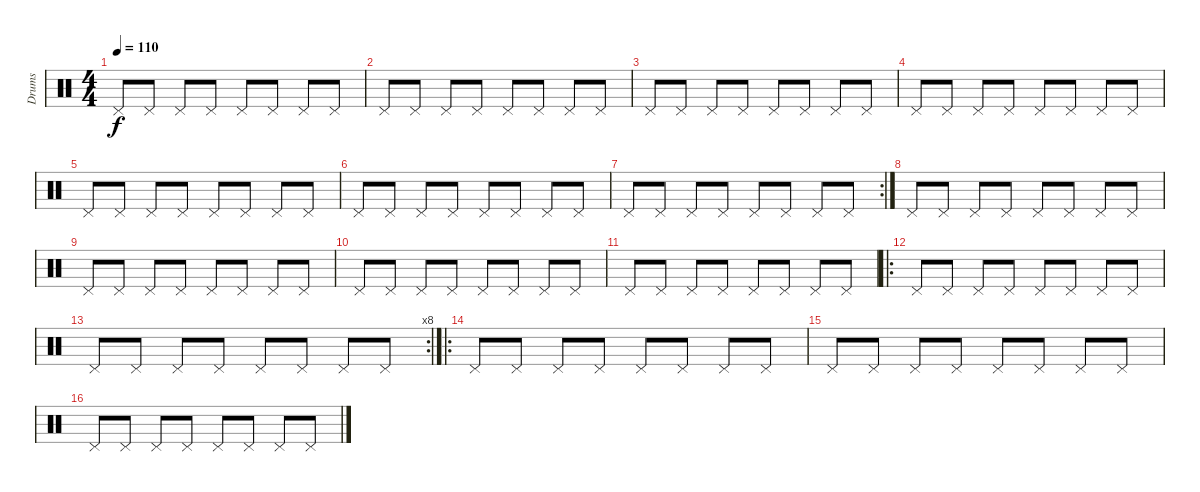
\track ("Drums" "Drums") {instrument percussion}
\staff {score}
\articulation defaults
\ts (4 4)
\tempo 110
\clef neutral
\ks c "Pedal Hi-Hat (hit)".8{dy f} "Pedal Hi-Hat (hit)".8 "Pedal Hi-Hat (hit)".8 "Pedal Hi-Hat (hit)".8 "Pedal Hi-Hat (hit)".8 "Pedal Hi-Hat (hit)".8 "Pedal Hi-Hat (hit)".8 "Pedal Hi-Hat (hit)".8
|
"Pedal Hi-Hat (hit)".8 "Pedal Hi-Hat (hit)".8 "Pedal Hi-Hat (hit)".8 "Pedal Hi-Hat (hit)".8 "Pedal Hi-Hat (hit)".8 "Pedal Hi-Hat (hit)".8 "Pedal Hi-Hat (hit)".8 "Pedal Hi-Hat (hit)".8 |
"Pedal Hi-Hat (hit)".8 "Pedal Hi-Hat (hit)".8 "Pedal Hi-Hat (hit)".8 "Pedal Hi-Hat (hit)".8 "Pedal Hi-Hat (hit)".8 "Pedal Hi-Hat (hit)".8 "Pedal Hi-Hat (hit)".8 "Pedal Hi-Hat (hit)".8 |
"Pedal Hi-Hat (hit)".8 "Pedal Hi-Hat (hit)".8 "Pedal Hi-Hat (hit)".8 "Pedal Hi-Hat (hit)".8 "Pedal Hi-Hat (hit)".8 "Pedal Hi-Hat (hit)".8 "Pedal Hi-Hat (hit)".8 "Pedal Hi-Hat (hit)".8 |
"Pedal Hi-Hat (hit)".8 "Pedal Hi-Hat (hit)".8 "Pedal Hi-Hat (hit)".8 "Pedal Hi-Hat (hit)".8 "Pedal Hi-Hat (hit)".8 "Pedal Hi-Hat (hit)".8 "Pedal Hi-Hat (hit)".8 "Pedal Hi-Hat (hit)".8 |
"Pedal Hi-Hat (hit)".8 "Pedal Hi-Hat (hit)".8 "Pedal Hi-Hat (hit)".8 "Pedal Hi-Hat (hit)".8 "Pedal Hi-Hat (hit)".8 "Pedal Hi-Hat (hit)".8 "Pedal Hi-Hat (hit)".8 "Pedal Hi-Hat (hit)".8 |
\rc 2 "Pedal Hi-Hat (hit)".8 "Pedal Hi-Hat (hit)".8 "Pedal Hi-Hat (hit)".8 "Pedal Hi-Hat (hit)".8 "Pedal Hi-Hat (hit)".8 "Pedal Hi-Hat (hit)".8 "Pedal Hi-Hat (hit)".8 "Pedal Hi-Hat (hit)".8
|
"Pedal Hi-Hat (hit)".8 "Pedal Hi-Hat (hit)".8 "Pedal Hi-Hat (hit)".8 "Pedal Hi-Hat (hit)".8 "Pedal Hi-Hat (hit)".8 "Pedal Hi-Hat (hit)".8 "Pedal Hi-Hat (hit)".8 "Pedal Hi-Hat (hit)".8 |
"Pedal Hi-Hat (hit)".8 "Pedal Hi-Hat (hit)".8 "Pedal Hi-Hat (hit)".8 "Pedal Hi-Hat (hit)".8 "Pedal Hi-Hat (hit)".8 "Pedal Hi-Hat (hit)".8 "Pedal Hi-Hat (hit)".8 "Pedal Hi-Hat (hit)".8 |
"Pedal Hi-Hat (hit)".8 "Pedal Hi-Hat (hit)".8 "Pedal Hi-Hat (hit)".8 "Pedal Hi-Hat (hit)".8 "Pedal Hi-Hat (hit)".8 "Pedal Hi-Hat (hit)".8 "Pedal Hi-Hat (hit)".8 "Pedal Hi-Hat (hit)".8 |
"Pedal Hi-Hat (hit)".8 "Pedal Hi-Hat (hit)".8 "Pedal Hi-Hat (hit)".8 "Pedal Hi-Hat (hit)".8 "Pedal Hi-Hat (hit)".8 "Pedal Hi-Hat (hit)".8 "Pedal Hi-Hat (hit)".8 "Pedal Hi-Hat (hit)".8 |
\ro "Pedal Hi-Hat (hit)".8 "Pedal Hi-Hat (hit)".8 "Pedal Hi-Hat (hit)".8 "Pedal Hi-Hat (hit)".8 "Pedal Hi-Hat (hit)".8 "Pedal Hi-Hat (hit)".8 "Pedal Hi-Hat (hit)".8 "Pedal Hi-Hat (hit)".8
|
\rc 8 "Pedal Hi-Hat (hit)".8 "Pedal Hi-Hat (hit)".8 "Pedal Hi-Hat (hit)".8 "Pedal Hi-Hat (hit)".8 "Pedal Hi-Hat (hit)".8 "Pedal Hi-Hat (hit)".8 "Pedal Hi-Hat (hit)".8 "Pedal Hi-Hat (hit)".8
|
\ro "Pedal Hi-Hat (hit)".8 "Pedal Hi-Hat (hit)".8 "Pedal Hi-Hat (hit)".8 "Pedal Hi-Hat (hit)".8 "Pedal Hi-Hat (hit)".8 "Pedal Hi-Hat (hit)".8 "Pedal Hi-Hat (hit)".8 "Pedal Hi-Hat (hit)".8
|
"Pedal Hi-Hat (hit)".8 "Pedal Hi-Hat (hit)".8 "Pedal Hi-Hat (hit)".8 "Pedal Hi-Hat (hit)".8 "Pedal Hi-Hat (hit)".8 "Pedal Hi-Hat (hit)".8 "Pedal Hi-Hat (hit)".8 "Pedal Hi-Hat (hit)".8 |
"Pedal Hi-Hat (hit)".8 "Pedal Hi-Hat (hit)".8 "Pedal Hi-Hat (hit)".8 "Pedal Hi-Hat (hit)".8 "Pedal Hi-Hat (hit)".8 "Pedal Hi-Hat (hit)".8 "Pedal Hi-Hat (hit)".8 "Pedal Hi-Hat (hit)".8
